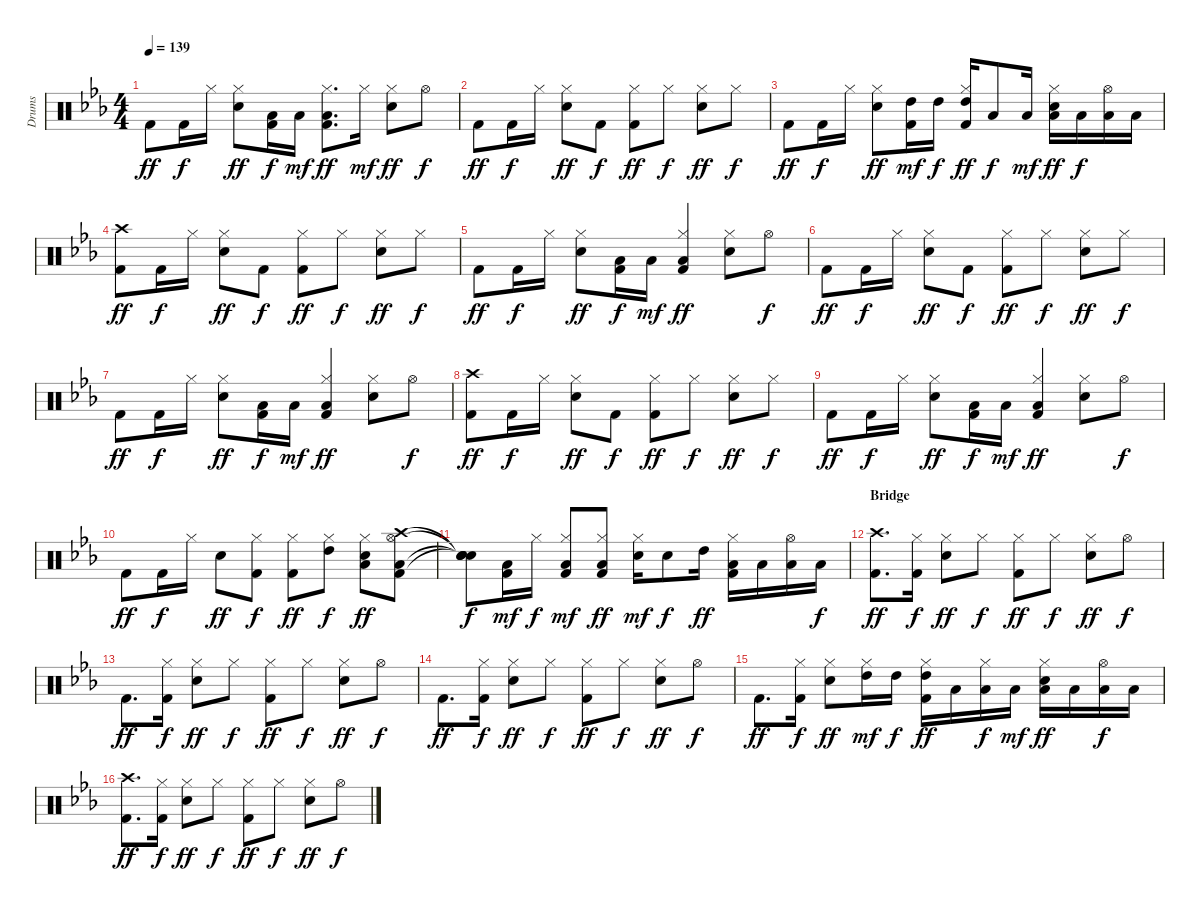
\track ("Drums" "Drums") {instrument percussion}
\staff {score}
\articulation defaults
\ts (4 4)
\tempo 139
\clef neutral
\ks cminor "Kick (hit) 2".8{dy ff} "Kick (hit) 2".16{dy f} "Hi-Hat (closed)".16
("Hi-Hat (closed)" "Snare (hit) 2").8{dy ff} ("Low Floor Tom (hit)" "Kick (hit) 2").16{dy f} "Low Tom (hit)".16{dy mf} ("Low Floor Tom (hit)" "Hi-Hat (closed)" "Kick (hit) 2").8{d dy ff} "Hi-Hat (closed)".16{dy mf} ("Hi-Hat (closed)" "Snare (hit) 2").8{dy ff} "Hi-Hat (open)".8{dy f} |
"Kick (hit) 2".8{dy ff} "Kick (hit) 2".16{dy f} "Hi-Hat (closed)".16 ("Hi-Hat (closed)" "Snare (hit) 2").8{dy ff} "Kick (hit) 2".8{dy f} ("Hi-Hat (closed)" "Kick (hit) 2").8{dy ff} "Hi-Hat (closed)".8{dy f} ("Hi-Hat (closed)" "Snare (hit) 2").8{dy ff} "Hi-Hat (closed)".8{dy f} |
"Kick (hit) 2".8{dy ff} "Kick (hit) 2".16{dy f} "Hi-Hat (closed)".16 ("Hi-Hat (closed)" "Snare (hit) 2").8{dy ff} ("High Tom (hit)" "Kick (hit) 2").16{dy mf} "High Tom (hit)".16{dy f} ("High Tom (hit)" "Hi-Hat (closed)" "Kick (hit) 2").16{dy ff} "Low Tom (hit)".8{dy f} "Low Tom (hit)".16{dy mf} ("Low Tom (hit)" "Hi-Hat (closed)" "Snare (hit) 2").16{dy ff} "Low Floor Tom (hit)".16{dy f} ("Low Floor Tom (hit)" "Hi-Hat (open)").16 "Low Floor Tom (hit)".16 |
("Crash high (hit)" "Kick (hit) 2").8{dy ff} "Kick (hit) 2".16{dy f} "Hi-Hat (closed)".16 ("Hi-Hat (closed)" "Snare (hit) 2").8{dy ff} "Kick (hit) 2".8{dy f} ("Hi-Hat (closed)" "Kick (hit) 2").8{dy ff} "Hi-Hat (closed)".8{dy f} ("Hi-Hat (closed)" "Snare (hit) 2").8{dy ff} "Hi-Hat (closed)".8{dy f} |
"Kick (hit) 2".8{dy ff} "Kick (hit) 2".16{dy f} "Hi-Hat (closed)".16 ("Hi-Hat (closed)" "Snare (hit) 2").8{dy ff} ("Low Floor Tom (hit)" "Kick (hit) 2").16{dy f} "Low Tom (hit)".16{dy mf} ("Low Floor Tom (hit)" "Hi-Hat (closed)" "Kick (hit) 2").4{dy ff} ("Hi-Hat (closed)" "Snare (hit) 2").8 "Hi-Hat (open)".8{dy f} |
"Kick (hit) 2".8{dy ff} "Kick (hit) 2".16{dy f} "Hi-Hat (closed)".16 ("Hi-Hat (closed)" "Snare (hit) 2").8{dy ff} "Kick (hit) 2".8{dy f} ("Hi-Hat (closed)" "Kick (hit) 2").8{dy ff} "Hi-Hat (closed)".8{dy f} ("Hi-Hat (closed)" "Snare (hit) 2").8{dy ff} "Hi-Hat (closed)".8{dy f} |
"Kick (hit) 2".8{dy ff} "Kick (hit) 2".16{dy f} "Hi-Hat (closed)".16 ("Hi-Hat (closed)" "Snare (hit) 2").8{dy ff} ("Low Floor Tom (hit)" "Kick (hit) 2").16{dy f} "Low Tom (hit)".16{dy mf} ("Low Floor Tom (hit)" "Hi-Hat (closed)" "Kick (hit) 2").4{dy ff} ("Hi-Hat (closed)" "Snare (hit) 2").8 "Hi-Hat (open)".8{dy f} |
("Crash high (hit)" "Kick (hit) 2").8{dy ff} "Kick (hit) 2".16{dy f} "Hi-Hat (closed)".16 ("Hi-Hat (closed)" "Snare (hit) 2").8{dy ff} "Kick (hit) 2".8{dy f} ("Hi-Hat (closed)" "Kick (hit) 2").8{dy ff} "Hi-Hat (closed)".8{dy f} ("Hi-Hat (closed)" "Snare (hit) 2").8{dy ff} "Hi-Hat (closed)".8{dy f} |
"Kick (hit) 2".8{dy ff} "Kick (hit) 2".16{dy f} "Hi-Hat (closed)".16 ("Hi-Hat (closed)" "Snare (hit) 2").8{dy ff} ("Low Floor Tom (hit)" "Kick (hit) 2").16{dy f} "Low Tom (hit)".16{dy mf} ("Low Floor Tom (hit)" "Hi-Hat (closed)" "Kick (hit) 2").4{dy ff} ("Hi-Hat (closed)" "Snare (hit) 2").8 "Hi-Hat (open)".8{dy f} |
"Kick (hit) 2".8{dy ff} "Kick (hit) 2".16{dy f} "Hi-Hat (closed)".16 "Snare (hit) 2".8{dy ff} ("Hi-Hat (closed)" "Kick (hit) 2").8{dy f} ("Hi-Hat (closed)" "Kick (hit) 2").8{dy ff} ("High Tom (hit)" "Hi-Hat (closed)").8{dy f} ("Low Tom (hit)" "Hi-Hat (closed)" "Snare (hit) 2").8{dy ff} ("Crash high (hit)" "Kick (hit) 2" "Low Floor Tom (hit)" "Hi-Hat (open)").8 |
("Snare (hit)"{t} "Snare (hit)"{t} "Snare (hit)"{t} "Snare (hit)"{t}).8{dy f} ("Low Floor Tom (hit)" "Kick (hit) 2").16{dy mf} "Hi-Hat (closed)".16{dy f} ("Kick (hit) 2" "Low Floor Tom (hit)" "Hi-Hat (closed)").8{dy mf} ("Low Floor Tom (hit)" "Hi-Hat (closed)" "Kick (hit) 2").8{dy ff} ("Snare (hit) 2" "Hi-Hat (closed)").16{dy mf} "Snare (hit) 2".8{dy f} "High Tom (hit)".16{dy ff} ("Kick (hit) 2" "Low Tom (hit)" "Hi-Hat (closed)").16 "Low Tom (hit)".16 ("Low Floor Tom (hit)" "Hi-Hat (open)").16 "Low Floor Tom (hit)".16{dy f} |
\section ("" "Bridge")
("Crash high (hit)" "Kick (hit) 2").8{d dy ff} ("Kick (hit) 2" "Hi-Hat (closed)").16{dy f} ("Hi-Hat (closed)" "Snare (hit) 2").8{dy ff} "Hi-Hat (closed)".8{dy f} ("Hi-Hat (closed)" "Kick (hit) 2").8{dy ff} "Hi-Hat (closed)".8{dy f} ("Hi-Hat (closed)" "Snare (hit) 2").8{dy ff} "Hi-Hat (open)".8{dy f} |
"Kick (hit) 2".8{d dy ff} ("Kick (hit) 2" "Hi-Hat (closed)").16{dy f} ("Hi-Hat (closed)" "Snare (hit) 2").8{dy ff} "Hi-Hat (closed)".8{dy f} ("Hi-Hat (closed)" "Kick (hit) 2").8{dy ff} "Hi-Hat (closed)".8{dy f} ("Hi-Hat (closed)" "Snare (hit) 2").8{dy ff} "Hi-Hat (open)".8{dy f} |
"Kick (hit) 2".8{d dy ff} ("Kick (hit) 2" "Hi-Hat (closed)").16{dy f} ("Hi-Hat (closed)" "Snare (hit) 2").8{dy ff} "Hi-Hat (closed)".8{dy f} ("Hi-Hat (closed)" "Kick (hit) 2").8{dy ff} "Hi-Hat (closed)".8{dy f} ("Hi-Hat (closed)" "Snare (hit) 2").8{dy ff} "Hi-Hat (open)".8{dy f} |
"Kick (hit) 2".8{d dy ff} ("Kick (hit) 2" "Hi-Hat (closed)").16{dy f} ("Hi-Hat (closed)" "Snare (hit) 2").8{dy ff} ("High Tom (hit)" "Hi-Hat (closed)").16{dy mf} "High Tom (hit)".16{dy f} ("High Tom (hit)" "Hi-Hat (closed)" "Kick (hit) 2").16{dy ff} "Low Tom (hit)".16 ("Low Tom (hit)" "Hi-Hat (closed)").16{dy f} "Low Tom (hit)".16{dy mf} ("Low Tom (hit)" "Hi-Hat (closed)" "Snare (hit) 2").16{dy ff} "Low Floor Tom (hit)".16 ("Low Floor Tom (hit)" "Hi-Hat (open)").16{dy f} "Low Floor Tom (hit)".16 |
("Crash high (hit)" "Kick (hit) 2").8{d dy ff} ("Kick (hit) 2" "Hi-Hat (closed)").16{dy f} ("Hi-Hat (closed)" "Snare (hit) 2").8{dy ff} "Hi-Hat (closed)".8{dy f} ("Hi-Hat (closed)" "Kick (hit) 2").8{dy ff} "Hi-Hat (closed)".8{dy f} ("Hi-Hat (closed)" "Snare (hit) 2").8{dy ff} "Hi-Hat (open)".8{dy f}
